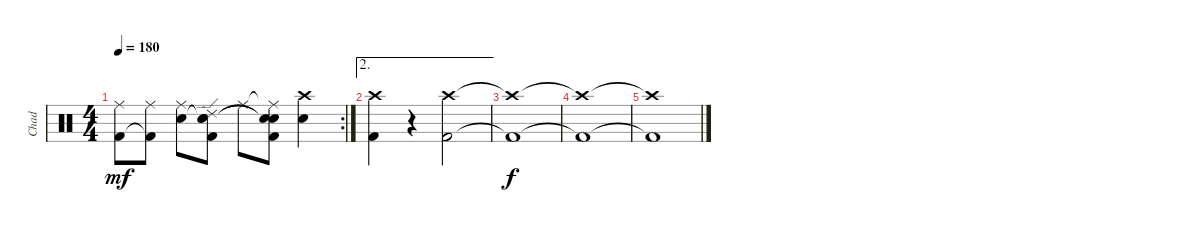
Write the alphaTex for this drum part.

\track ("Chad" "Chad") {instrument percussion}
\staff {score}
\articulation defaults
\rc 2
\ts (4 4)
\tempo 180
\clef neutral
\ks c
("Ride (middle)" "Kick (hit) 2").8{dy mf} ("Ride (middle)" "Kick (hit) 2"{t}).8 ("Ride (middle)" "Snare (hit) 2").8 ("Ride (edge) 2" "Snare (hit)"{t} "Snare (hit) 2"{t} "Kick (hit) 2").8 "Ride (middle)".8 ("Ride (middle)"{t} "Snare (hit)"{t} "Snare (hit) 2"{t} "Kick (hit) 2").8 ("Crash high (hit)" "Snare (hit) 2").4 |
\ae 2
("Crash high (hit)" "Kick (hit) 2").4 r.4 ("Crash high (hit)" "Kick (hit) 2").2 |
("Crash high (hit)"{t} "Kick (hit) 2"{t}).1{dy f} |
("Crash high (hit)"{t} "Kick (hit) 2"{t}).1 |
("Crash high (hit)"{t} "Kick (hit) 2"{t}).1
